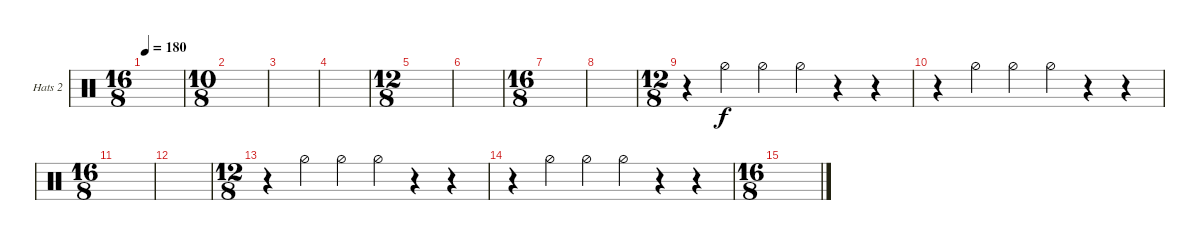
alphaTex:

\defaultSystemsLayout 4
\bracketExtendMode groupsimilarinstruments
\firstSystemTrackNameOrientation horizontal
\otherSystemsTrackNameOrientation horizontal
\track ("Hi Hats Open" "Hats 2") {instrument percussion}
\staff {score}
\articulation defaults
\ts (16 8)
\tempo 180
\clef neutral
\scale
0.333333
\ks c
|
\ts (10 8)
\scale
0.333333 |
\scale
0.333333 |
\scale
0.333333 |
\ts (12 8)
\scale
0.333333 |
\scale
0.333333 |
\ts (16 8)
\scale
0.333333 |
\scale
0.333333 |
\ts (12 8)
\scale
0.333333 r.4 "Hi-Hat (half)".4 "Hi-Hat (half)".4 "Hi-Hat (half)".4 r.4 r.4 |
\scale
0.333333 r.4 "Hi-Hat (half)".4 "Hi-Hat (half)".4 "Hi-Hat (half)".4 r.4 r.4 |
\ts (16 8)
\scale
0.333333 |
\scale
0.333333 |
\ts (12 8)
\scale
0.333333 r.4 "Hi-Hat (half)".4 "Hi-Hat (half)".4 "Hi-Hat (half)".4 r.4 r.4 |
\scale
0.333333 r.4 "Hi-Hat (half)".4 "Hi-Hat (half)".4 "Hi-Hat (half)".4 r.4 r.4 |
\ts (16 8)
\scale
0.333333 |
\scale
0.333333
